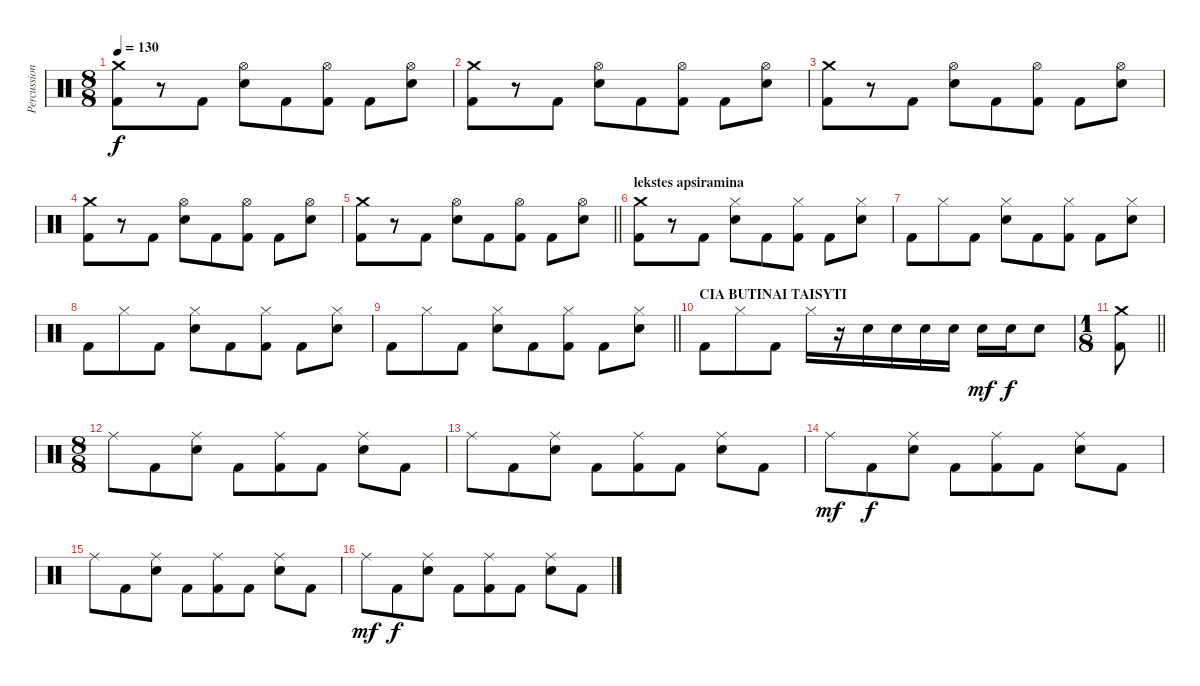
\track ("Percussion" "Percussion") {instrument percussion}
\staff {score}
\articulation defaults
\ts (8 8)
\tempo 130
\clef neutral
\ks c
("Crash medium (hit)" "Kick (hit) 2").8{dy f} r.8 "Kick (hit) 2".8 ("Hi-Hat (open)" "Snare (hit) 2").8 "Kick (hit) 2".8 ("Hi-Hat (open)" "Kick (hit) 2").8 "Kick (hit) 2".8 ("Hi-Hat (open)" "Snare (hit) 2").8 |
("Crash medium (hit)" "Kick (hit) 2").8 r.8 "Kick (hit) 2".8 ("Hi-Hat (open)" "Snare (hit) 2").8 "Kick (hit) 2".8 ("Hi-Hat (open)" "Kick (hit) 2").8 "Kick (hit) 2".8 ("Hi-Hat (open)" "Snare (hit) 2").8 |
("Crash medium (hit)" "Kick (hit) 2").8 r.8 "Kick (hit) 2".8 ("Hi-Hat (open)" "Snare (hit) 2").8 "Kick (hit) 2".8 ("Hi-Hat (open)" "Kick (hit) 2").8 "Kick (hit) 2".8 ("Hi-Hat (open)" "Snare (hit) 2").8 |
("Crash medium (hit)" "Kick (hit) 2").8 r.8 "Kick (hit) 2".8 ("Hi-Hat (open)" "Snare (hit) 2").8 "Kick (hit) 2".8 ("Hi-Hat (open)" "Kick (hit) 2").8 "Kick (hit) 2".8 ("Hi-Hat (open)" "Snare (hit) 2").8 |
\barLineRight lightlight
("Crash medium (hit)" "Kick (hit) 2").8 r.8 "Kick (hit) 2".8 ("Hi-Hat (open)" "Snare (hit) 2").8 "Kick (hit) 2".8 ("Hi-Hat (open)" "Kick (hit) 2").8 "Kick (hit) 2".8 ("Hi-Hat (open)" "Snare (hit) 2").8 |
\section ("" "lekstes apsiramina")
("Crash medium (hit)" "Kick (hit) 2").8 r.8 "Kick (hit) 2".8 ("Hi-Hat (closed)" "Snare (hit) 2").8 "Kick (hit) 2".8 ("Hi-Hat (closed)" "Kick (hit) 2").8 "Kick (hit) 2".8 ("Hi-Hat (closed)" "Snare (hit) 2").8 |
"Kick (hit) 2".8 "Hi-Hat (closed)".8 "Kick (hit) 2".8 ("Hi-Hat (closed)" "Snare (hit) 2").8 "Kick (hit) 2".8 ("Hi-Hat (closed)" "Kick (hit) 2").8 "Kick (hit) 2".8 ("Hi-Hat (closed)" "Snare (hit) 2").8 |
"Kick (hit) 2".8 "Hi-Hat (closed)".8 "Kick (hit) 2".8 ("Hi-Hat (closed)" "Snare (hit) 2").8 "Kick (hit) 2".8 ("Hi-Hat (closed)" "Kick (hit) 2").8 "Kick (hit) 2".8 ("Hi-Hat (closed)" "Snare (hit) 2").8 |
\barLineRight lightlight "Kick (hit) 2".8 "Hi-Hat (closed)".8 "Kick (hit) 2".8
("Hi-Hat (closed)" "Snare (hit) 2").8 "Kick (hit) 2".8 ("Hi-Hat (closed)" "Kick (hit) 2").8 "Kick (hit) 2".8 ("Hi-Hat (closed)" "Snare (hit) 2").8 |
\section ("" "CIA BUTINAI TAISYTI")
"Kick (hit) 2".8 "Hi-Hat (closed)".8 "Kick (hit) 2".8 "Hi-Hat (closed)".16 r.16 "Snare (hit) 2".16 "Snare (hit) 2".16 "Snare (hit) 2".16 "Snare (hit) 2".16 "Snare (hit) 2".16{dy mf} "Snare (hit) 2".16{dy f} "Snare (hit) 2".8 |
\ts (1 8)
\barLineRight lightlight
("Crash medium (hit)" "Kick (hit) 2").8 |
\ts (8 8)
"Ride (middle)".8 "Kick (hit) 2".8 ("Ride (middle)" "Snare (hit) 2").8 "Kick (hit) 2".8 ("Ride (middle)" "Kick (hit) 2").8 "Kick (hit) 2".8 ("Ride (middle)" "Snare (hit) 2").8 "Kick (hit) 2".8 |
"Ride (middle)".8 "Kick (hit) 2".8 ("Ride (middle)" "Snare (hit) 2").8 "Kick (hit) 2".8 ("Ride (middle)" "Kick (hit) 2").8 "Kick (hit) 2".8 ("Ride (middle)" "Snare (hit) 2").8 "Kick (hit) 2".8 |
"Ride (middle)".8{dy mf} "Kick (hit) 2".8{dy f} ("Ride (middle)" "Snare (hit) 2").8 "Kick (hit) 2".8 ("Ride (middle)" "Kick (hit) 2").8 "Kick (hit) 2".8 ("Ride (middle)" "Snare (hit) 2").8 "Kick (hit) 2".8 |
"Ride (middle)".8 "Kick (hit) 2".8 ("Ride (middle)" "Snare (hit) 2").8 "Kick (hit) 2".8 ("Ride (middle)" "Kick (hit) 2").8 "Kick (hit) 2".8 ("Ride (middle)" "Snare (hit) 2").8 "Kick (hit) 2".8 |
"Ride (middle)".8{dy mf} "Kick (hit) 2".8{dy f} ("Ride (middle)" "Snare (hit) 2").8 "Kick (hit) 2".8 ("Ride (middle)" "Kick (hit) 2").8 "Kick (hit) 2".8 ("Ride (middle)" "Snare (hit) 2").8 "Kick (hit) 2".8
